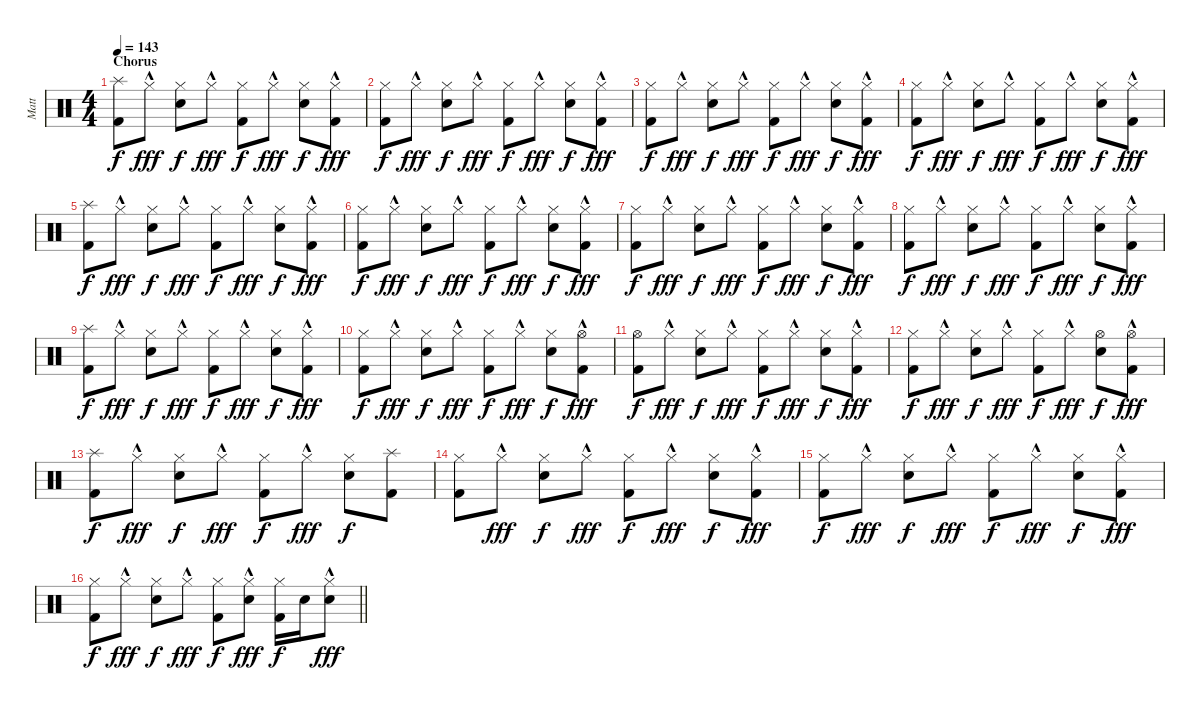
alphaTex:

\track ("Matt" "Matt") {instrument percussion}
\staff {score}
\articulation defaults
\ts (4 4)
\section ("" "Chorus")
\tempo 143
\clef neutral
\ks c
("Splash (hit)" "Kick (hit) 2").8{dy f} "Hi-Hat (closed)"{hac}.8{dy fff} ("Hi-Hat (closed)" "Snare (hit) 2").8{dy f} "Hi-Hat (closed)"{hac}.8{dy fff} ("Hi-Hat (closed)" "Kick (hit) 2").8{dy f} "Hi-Hat (closed)"{hac}.8{dy fff} ("Hi-Hat (closed)" "Snare (hit) 2").8{dy f} ("Hi-Hat (closed)"{hac} "Kick (hit) 2").8{dy fff} |
("Hi-Hat (closed)" "Kick (hit) 2").8{dy f} "Hi-Hat (closed)"{hac}.8{dy fff} ("Hi-Hat (closed)" "Snare (hit) 2").8{dy f} "Hi-Hat (closed)"{hac}.8{dy fff} ("Hi-Hat (closed)" "Kick (hit) 2").8{dy f} "Hi-Hat (closed)"{hac}.8{dy fff} ("Hi-Hat (closed)" "Snare (hit) 2").8{dy f} ("Hi-Hat (closed)"{hac} "Kick (hit) 2").8{dy fff} |
("Hi-Hat (closed)" "Kick (hit) 2").8{dy f} "Hi-Hat (closed)"{hac}.8{dy fff} ("Hi-Hat (closed)" "Snare (hit) 2").8{dy f} "Hi-Hat (closed)"{hac}.8{dy fff} ("Hi-Hat (closed)" "Kick (hit) 2").8{dy f} "Hi-Hat (closed)"{hac}.8{dy fff} ("Hi-Hat (closed)" "Snare (hit) 2").8{dy f} ("Hi-Hat (closed)"{hac} "Kick (hit) 2").8{dy fff} |
("Hi-Hat (closed)" "Kick (hit) 2").8{dy f} "Hi-Hat (closed)"{hac}.8{dy fff} ("Hi-Hat (closed)" "Snare (hit) 2").8{dy f} "Hi-Hat (closed)"{hac}.8{dy fff} ("Hi-Hat (closed)" "Kick (hit) 2").8{dy f} "Hi-Hat (closed)"{hac}.8{dy fff} ("Hi-Hat (closed)" "Snare (hit) 2").8{dy f} ("Hi-Hat (closed)"{hac} "Kick (hit) 2").8{dy fff} |
("Splash (hit)" "Kick (hit) 2").8{dy f} "Hi-Hat (closed)"{hac}.8{dy fff} ("Hi-Hat (closed)" "Snare (hit) 2").8{dy f} "Hi-Hat (closed)"{hac}.8{dy fff} ("Hi-Hat (closed)" "Kick (hit) 2").8{dy f} "Hi-Hat (closed)"{hac}.8{dy fff} ("Hi-Hat (closed)" "Snare (hit) 2").8{dy f} ("Hi-Hat (closed)"{hac} "Kick (hit) 2").8{dy fff} |
("Hi-Hat (closed)" "Kick (hit) 2").8{dy f} "Hi-Hat (closed)"{hac}.8{dy fff} ("Hi-Hat (closed)" "Snare (hit) 2").8{dy f} "Hi-Hat (closed)"{hac}.8{dy fff} ("Hi-Hat (closed)" "Kick (hit) 2").8{dy f} "Hi-Hat (closed)"{hac}.8{dy fff} ("Hi-Hat (closed)" "Snare (hit) 2").8{dy f} ("Hi-Hat (closed)"{hac} "Kick (hit) 2").8{dy fff} |
("Hi-Hat (closed)" "Kick (hit) 2").8{dy f} "Hi-Hat (closed)"{hac}.8{dy fff} ("Hi-Hat (closed)" "Snare (hit) 2").8{dy f} "Hi-Hat (closed)"{hac}.8{dy fff} ("Hi-Hat (closed)" "Kick (hit) 2").8{dy f} "Hi-Hat (closed)"{hac}.8{dy fff} ("Hi-Hat (closed)" "Snare (hit) 2").8{dy f} ("Hi-Hat (closed)"{hac} "Kick (hit) 2").8{dy fff} |
("Hi-Hat (closed)" "Kick (hit) 2").8{dy f} "Hi-Hat (closed)"{hac}.8{dy fff} ("Hi-Hat (closed)" "Snare (hit) 2").8{dy f} "Hi-Hat (closed)"{hac}.8{dy fff} ("Hi-Hat (closed)" "Kick (hit) 2").8{dy f} "Hi-Hat (closed)"{hac}.8{dy fff} ("Hi-Hat (closed)" "Snare (hit) 2").8{dy f} ("Hi-Hat (closed)"{hac} "Kick (hit) 2").8{dy fff} |
("Splash (hit)" "Kick (hit) 2").8{dy f} "Hi-Hat (closed)"{hac}.8{dy fff} ("Hi-Hat (closed)" "Snare (hit) 2").8{dy f} "Hi-Hat (closed)"{hac}.8{dy fff} ("Hi-Hat (closed)" "Kick (hit) 2").8{dy f} "Hi-Hat (closed)"{hac}.8{dy fff} ("Hi-Hat (closed)" "Snare (hit) 2").8{dy f} ("Hi-Hat (closed)"{hac} "Kick (hit) 2").8{dy fff} |
("Hi-Hat (closed)" "Kick (hit) 2").8{dy f} "Hi-Hat (closed)"{hac}.8{dy fff} ("Hi-Hat (closed)" "Snare (hit) 2").8{dy f} "Hi-Hat (closed)"{hac}.8{dy fff} ("Hi-Hat (closed)" "Kick (hit) 2").8{dy f} "Hi-Hat (closed)"{hac}.8{dy fff} ("Hi-Hat (closed)" "Snare (hit) 2").8{dy f} ("Hi-Hat (open)"{hac} "Kick (hit) 2").8{dy fff} |
("Hi-Hat (open)" "Kick (hit) 2").8{dy f} "Hi-Hat (closed)"{hac}.8{dy fff} ("Hi-Hat (closed)" "Snare (hit) 2").8{dy f} "Hi-Hat (closed)"{hac}.8{dy fff} ("Hi-Hat (closed)" "Kick (hit) 2").8{dy f} "Hi-Hat (closed)"{hac}.8{dy fff} ("Hi-Hat (closed)" "Snare (hit) 2").8{dy f} ("Hi-Hat (closed)"{hac} "Kick (hit) 2").8{dy fff} |
("Hi-Hat (closed)" "Kick (hit) 2").8{dy f} "Hi-Hat (closed)"{hac}.8{dy fff} ("Hi-Hat (closed)" "Snare (hit) 2").8{dy f} "Hi-Hat (closed)"{hac}.8{dy fff} ("Hi-Hat (closed)" "Kick (hit) 2").8{dy f} "Hi-Hat (closed)"{hac}.8{dy fff} ("Hi-Hat (open)" "Snare (hit) 2").8{dy f} ("Hi-Hat (open)"{hac} "Kick (hit) 2").8{dy fff} |
("Splash (hit)" "Kick (hit) 2").8{dy f} "Hi-Hat (closed)"{hac}.8{dy fff} ("Hi-Hat (closed)" "Snare (hit) 2").8{dy f} "Hi-Hat (closed)"{hac}.8{dy fff} ("Hi-Hat (closed)" "Kick (hit) 2").8{dy f} "Hi-Hat (closed)"{hac}.8{dy fff} ("Hi-Hat (closed)" "Snare (hit) 2").8{dy f} ("Splash (hit)" "Kick (hit) 2").8 |
("Hi-Hat (closed)" "Kick (hit) 2").8 "Hi-Hat (closed)"{hac}.8{dy fff} ("Hi-Hat (closed)" "Snare (hit) 2").8{dy f} "Hi-Hat (closed)"{hac}.8{dy fff} ("Hi-Hat (closed)" "Kick (hit) 2").8{dy f} "Hi-Hat (closed)"{hac}.8{dy fff} ("Hi-Hat (closed)" "Snare (hit) 2").8{dy f} ("Hi-Hat (closed)"{hac} "Kick (hit) 2").8{dy fff} |
("Hi-Hat (closed)" "Kick (hit) 2").8{dy f} "Hi-Hat (closed)"{hac}.8{dy fff} ("Hi-Hat (closed)" "Snare (hit) 2").8{dy f} "Hi-Hat (closed)"{hac}.8{dy fff} ("Hi-Hat (closed)" "Kick (hit) 2").8{dy f} "Hi-Hat (closed)"{hac}.8{dy fff} ("Hi-Hat (closed)" "Snare (hit) 2").8{dy f} ("Hi-Hat (closed)"{hac} "Kick (hit) 2").8{dy fff} |
\barLineRight lightlight
("Hi-Hat (closed)" "Kick (hit) 2").8{dy f} "Hi-Hat (closed)"{hac}.8{dy fff} ("Hi-Hat (closed)" "Snare (hit) 2").8{dy f} "Hi-Hat (closed)"{hac}.8{dy fff} ("Hi-Hat (closed)" "Kick (hit) 2").8{dy f} ("Hi-Hat (closed)"{hac} "Snare (hit) 2").8{dy fff} ("Hi-Hat (closed)" "Kick (hit) 2").16{dy f} "Snare (hit) 2".16 ("Hi-Hat (closed)"{hac} "Snare (hit) 2").8{dy fff}
